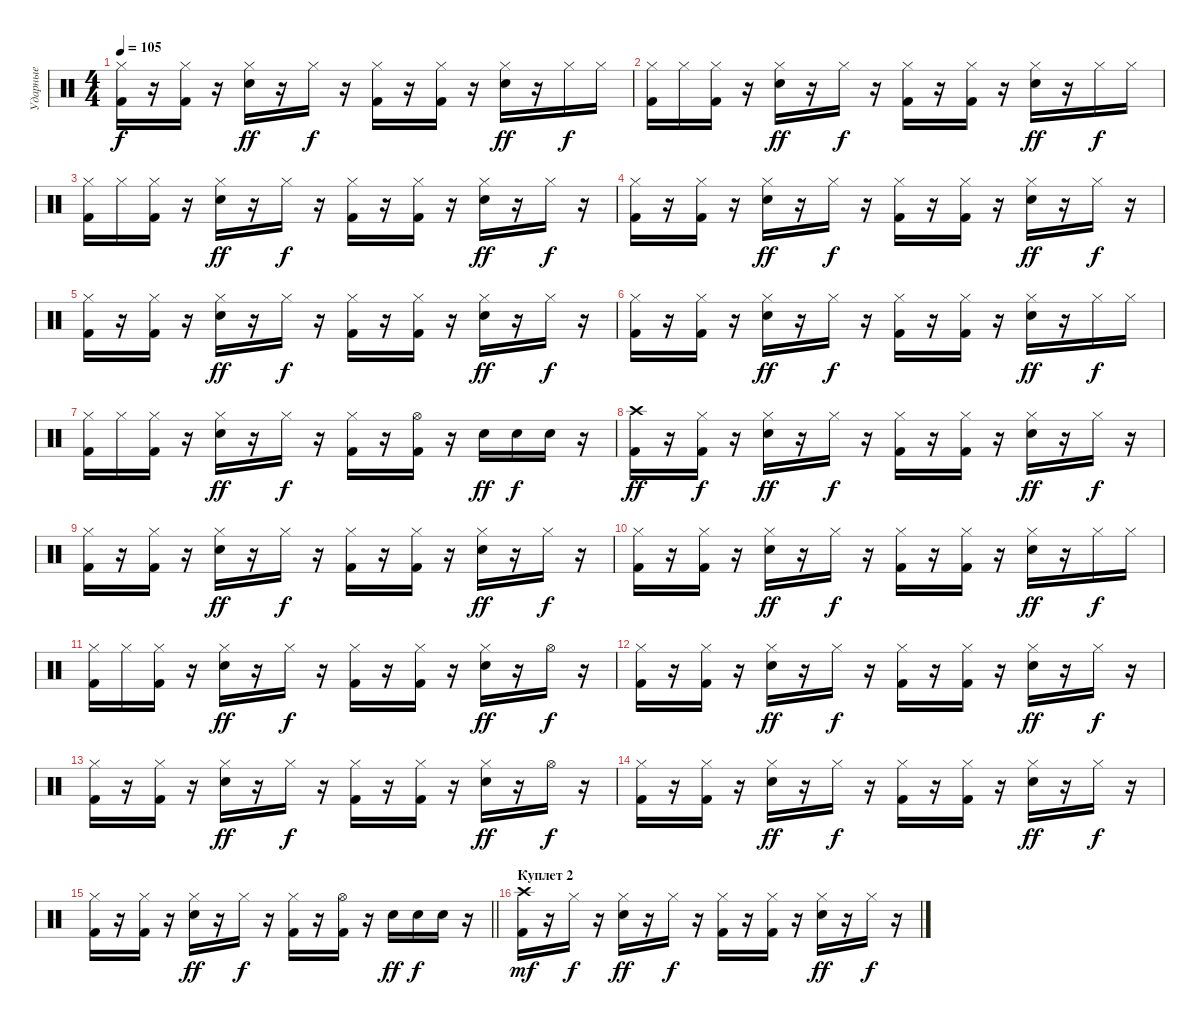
\track ("Ударные" "Ударные") {instrument percussion}
\staff {score}
\articulation defaults
\ts (4 4)
\tempo 105
\clef neutral
\ks c
("Hi-Hat (closed)" "Kick (hit) 2").16{dy f} r.16 ("Hi-Hat (closed)" "Kick (hit) 2").16 r.16 ("Hi-Hat (closed)" "Electric Snare (hit)").16{dy ff} r.16 "Hi-Hat (closed)".16{dy f} r.16 ("Hi-Hat (closed)" "Kick (hit) 2").16 r.16 ("Hi-Hat (closed)" "Kick (hit) 2").16 r.16 ("Hi-Hat (closed)" "Electric Snare (hit)").16{dy ff} r.16 "Hi-Hat (closed)".16{dy f} "Hi-Hat (closed)".16 |
("Hi-Hat (closed)" "Kick (hit) 2").16 "Hi-Hat (closed)".16 ("Hi-Hat (closed)" "Kick (hit) 2").16 r.16 ("Hi-Hat (closed)" "Electric Snare (hit)").16{dy ff} r.16 "Hi-Hat (closed)".16{dy f} r.16 ("Hi-Hat (closed)" "Kick (hit) 2").16 r.16 ("Hi-Hat (closed)" "Kick (hit) 2").16 r.16 ("Hi-Hat (closed)" "Electric Snare (hit)").16{dy ff} r.16 "Hi-Hat (closed)".16{dy f} "Hi-Hat (closed)".16 |
("Hi-Hat (closed)" "Kick (hit) 2").16 "Hi-Hat (closed)".16 ("Hi-Hat (closed)" "Kick (hit) 2").16 r.16 ("Hi-Hat (closed)" "Electric Snare (hit)").16{dy ff} r.16 "Hi-Hat (closed)".16{dy f} r.16 ("Hi-Hat (closed)" "Kick (hit) 2").16 r.16 ("Hi-Hat (closed)" "Kick (hit) 2").16 r.16 ("Hi-Hat (closed)" "Electric Snare (hit)").16{dy ff} r.16 "Hi-Hat (closed)".16{dy f} r.16 |
("Hi-Hat (closed)" "Kick (hit) 2").16 r.16 ("Hi-Hat (closed)" "Kick (hit) 2").16 r.16 ("Hi-Hat (closed)" "Electric Snare (hit)").16{dy ff} r.16 "Hi-Hat (closed)".16{dy f} r.16 ("Hi-Hat (closed)" "Kick (hit) 2").16 r.16 ("Hi-Hat (closed)" "Kick (hit) 2").16 r.16 ("Hi-Hat (closed)" "Electric Snare (hit)").16{dy ff} r.16 "Hi-Hat (closed)".16{dy f} r.16 |
("Hi-Hat (closed)" "Kick (hit) 2").16 r.16 ("Hi-Hat (closed)" "Kick (hit) 2").16 r.16 ("Hi-Hat (closed)" "Electric Snare (hit)").16{dy ff} r.16 "Hi-Hat (closed)".16{dy f} r.16 ("Hi-Hat (closed)" "Kick (hit) 2").16 r.16 ("Hi-Hat (closed)" "Kick (hit) 2").16 r.16 ("Hi-Hat (closed)" "Electric Snare (hit)").16{dy ff} r.16 "Hi-Hat (closed)".16{dy f} r.16 |
("Hi-Hat (closed)" "Kick (hit) 2").16 r.16 ("Hi-Hat (closed)" "Kick (hit) 2").16 r.16 ("Hi-Hat (closed)" "Electric Snare (hit)").16{dy ff} r.16 "Hi-Hat (closed)".16{dy f} r.16 ("Hi-Hat (closed)" "Kick (hit) 2").16 r.16 ("Hi-Hat (closed)" "Kick (hit) 2").16 r.16 ("Hi-Hat (closed)" "Electric Snare (hit)").16{dy ff} r.16 "Hi-Hat (closed)".16{dy f} "Hi-Hat (closed)".16 |
("Hi-Hat (closed)" "Kick (hit) 2").16 "Hi-Hat (closed)".16 ("Hi-Hat (closed)" "Kick (hit) 2").16 r.16 ("Hi-Hat (closed)" "Electric Snare (hit)").16{dy ff} r.16 "Hi-Hat (closed)".16{dy f} r.16 ("Hi-Hat (closed)" "Kick (hit) 2").16 r.16 ("Hi-Hat (open)" "Kick (hit) 2").16 r.16 "Electric Snare (hit)".16{dy ff} "Electric Snare (hit)".16{dy f} "Electric Snare (hit)".16 r.16 |
("Crash high (hit)" "Kick (hit) 2").16{dy ff} r.16 ("Hi-Hat (closed)" "Kick (hit) 2").16{dy f} r.16 ("Hi-Hat (closed)" "Electric Snare (hit)").16{dy ff} r.16 "Hi-Hat (closed)".16{dy f} r.16 ("Hi-Hat (closed)" "Kick (hit) 2").16 r.16 ("Hi-Hat (closed)" "Kick (hit) 2").16 r.16 ("Hi-Hat (closed)" "Electric Snare (hit)").16{dy ff} r.16 "Hi-Hat (closed)".16{dy f} r.16 |
("Hi-Hat (closed)" "Kick (hit) 2").16 r.16 ("Hi-Hat (closed)" "Kick (hit) 2").16 r.16 ("Hi-Hat (closed)" "Electric Snare (hit)").16{dy ff} r.16 "Hi-Hat (closed)".16{dy f} r.16 ("Hi-Hat (closed)" "Kick (hit) 2").16 r.16 ("Hi-Hat (closed)" "Kick (hit) 2").16 r.16 ("Hi-Hat (closed)" "Electric Snare (hit)").16{dy ff} r.16 "Hi-Hat (closed)".16{dy f} r.16 |
("Hi-Hat (closed)" "Kick (hit) 2").16 r.16 ("Hi-Hat (closed)" "Kick (hit) 2").16 r.16 ("Hi-Hat (closed)" "Electric Snare (hit)").16{dy ff} r.16 "Hi-Hat (closed)".16{dy f} r.16 ("Hi-Hat (closed)" "Kick (hit) 2").16 r.16 ("Hi-Hat (closed)" "Kick (hit) 2").16 r.16 ("Hi-Hat (closed)" "Electric Snare (hit)").16{dy ff} r.16 "Hi-Hat (closed)".16{dy f} "Hi-Hat (closed)".16 |
("Hi-Hat (closed)" "Kick (hit) 2").16 "Hi-Hat (closed)".16 ("Hi-Hat (closed)" "Kick (hit) 2").16 r.16 ("Hi-Hat (closed)" "Electric Snare (hit)").16{dy ff} r.16 "Hi-Hat (closed)".16{dy f} r.16 ("Hi-Hat (closed)" "Kick (hit) 2").16 r.16 ("Hi-Hat (closed)" "Kick (hit) 2").16 r.16 ("Hi-Hat (closed)" "Electric Snare (hit)").16{dy ff} r.16 "Hi-Hat (open)".16{dy f} r.16 |
("Hi-Hat (closed)" "Kick (hit) 2").16 r.16 ("Hi-Hat (closed)" "Kick (hit) 2").16 r.16 ("Hi-Hat (closed)" "Electric Snare (hit)").16{dy ff} r.16 "Hi-Hat (closed)".16{dy f} r.16 ("Hi-Hat (closed)" "Kick (hit) 2").16 r.16 ("Hi-Hat (closed)" "Kick (hit) 2").16 r.16 ("Hi-Hat (closed)" "Electric Snare (hit)").16{dy ff} r.16 "Hi-Hat (closed)".16{dy f} r.16 |
("Hi-Hat (closed)" "Kick (hit) 2").16 r.16 ("Hi-Hat (closed)" "Kick (hit) 2").16 r.16 ("Hi-Hat (closed)" "Electric Snare (hit)").16{dy ff} r.16 "Hi-Hat (closed)".16{dy f} r.16 ("Hi-Hat (closed)" "Kick (hit) 2").16 r.16 ("Hi-Hat (closed)" "Kick (hit) 2").16 r.16 ("Hi-Hat (closed)" "Electric Snare (hit)").16{dy ff} r.16 "Hi-Hat (open)".16{dy f} r.16 |
("Hi-Hat (closed)" "Kick (hit) 2").16 r.16 ("Hi-Hat (closed)" "Kick (hit) 2").16 r.16 ("Hi-Hat (closed)" "Electric Snare (hit)").16{dy ff} r.16 "Hi-Hat (closed)".16{dy f} r.16 ("Hi-Hat (closed)" "Kick (hit) 2").16 r.16 ("Hi-Hat (closed)" "Kick (hit) 2").16 r.16 ("Hi-Hat (closed)" "Electric Snare (hit)").16{dy ff} r.16 "Hi-Hat (closed)".16{dy f} r.16 |
\barLineRight lightlight
("Hi-Hat (closed)" "Kick (hit) 2").16 r.16 ("Hi-Hat (closed)" "Kick (hit) 2").16 r.16 ("Hi-Hat (closed)" "Electric Snare (hit)").16{dy ff} r.16 "Hi-Hat (closed)".16{dy f} r.16 ("Hi-Hat (closed)" "Kick (hit) 2").16 r.16 ("Hi-Hat (open)" "Kick (hit) 2").16 r.16 "Electric Snare (hit)".16{dy ff} "Electric Snare (hit)".16{dy f} "Electric Snare (hit)".16 r.16 |
\section ("" "Куплет 2")
("Crash high (hit)" "Kick (hit) 2").16{dy mf} r.16 "Hi-Hat (closed)".16{dy f} r.16 ("Hi-Hat (closed)" "Electric Snare (hit)").16{dy ff} r.16 "Hi-Hat (closed)".16{dy f} r.16 ("Hi-Hat (closed)" "Kick (hit) 2").16 r.16 ("Hi-Hat (closed)" "Kick (hit) 2").16 r.16 ("Hi-Hat (closed)" "Electric Snare (hit)").16{dy ff} r.16 "Hi-Hat (closed)".16{dy f} r.16
